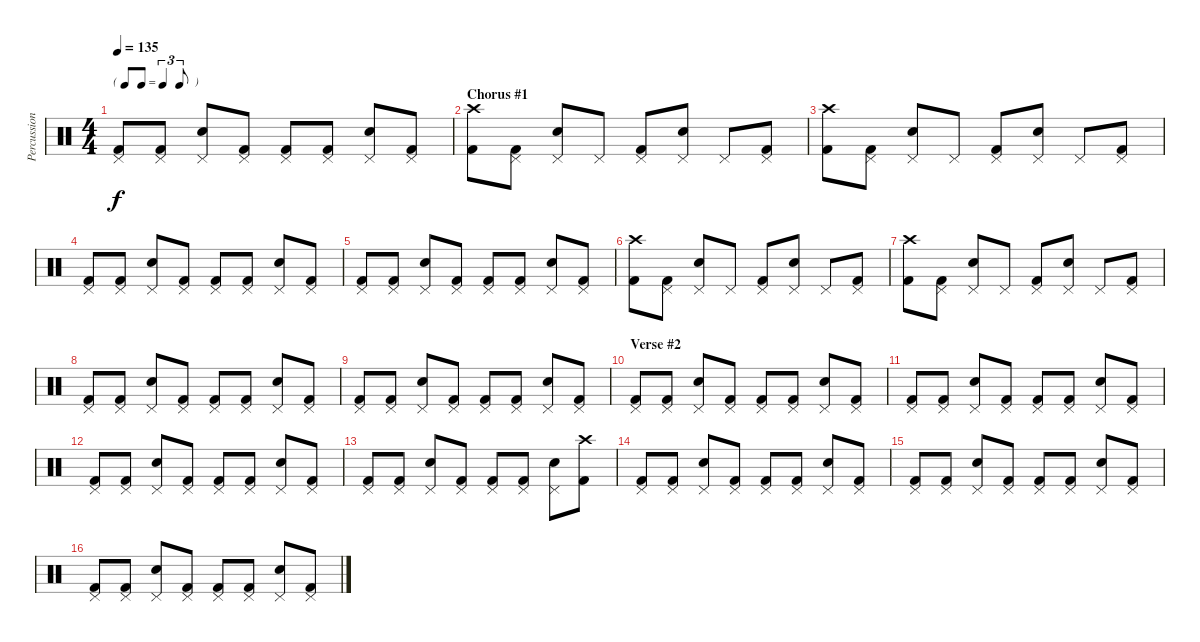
\track ("Percussion" "Percussion") {instrument percussion}
\staff {score}
\articulation defaults
\ts (4 4)
\tf triplet8th
\tempo 135
\clef neutral
\ks c
("Pedal Hi-Hat (hit)" "Kick (hit) 2").8{dy f} ("Pedal Hi-Hat (hit)" "Kick (hit) 2").8 ("Pedal Hi-Hat (hit)" "Electric Snare (hit)").8 ("Pedal Hi-Hat (hit)" "Kick (hit) 2").8 ("Pedal Hi-Hat (hit)" "Kick (hit) 2").8 ("Pedal Hi-Hat (hit)" "Kick (hit) 2").8 ("Pedal Hi-Hat (hit)" "Electric Snare (hit)").8 ("Pedal Hi-Hat (hit)" "Kick (hit) 2").8 |
\section ("" "Chorus #1")
("Crash high (hit)" "Kick (hit) 2").8 ("Pedal Hi-Hat (hit)" "Kick (hit) 2").8 ("Pedal Hi-Hat (hit)" "Electric Snare (hit)").8 "Pedal Hi-Hat (hit)".8 ("Pedal Hi-Hat (hit)" "Kick (hit) 2").8 ("Pedal Hi-Hat (hit)" "Electric Snare (hit)").8 "Pedal Hi-Hat (hit)".8 ("Pedal Hi-Hat (hit)" "Kick (hit) 2").8 |
("Crash high (hit)" "Kick (hit) 2").8 ("Pedal Hi-Hat (hit)" "Kick (hit) 2").8 ("Pedal Hi-Hat (hit)" "Electric Snare (hit)").8 "Pedal Hi-Hat (hit)".8 ("Pedal Hi-Hat (hit)" "Kick (hit) 2").8 ("Pedal Hi-Hat (hit)" "Electric Snare (hit)").8 "Pedal Hi-Hat (hit)".8 ("Pedal Hi-Hat (hit)" "Kick (hit) 2").8 |
("Pedal Hi-Hat (hit)" "Kick (hit) 2").8 ("Pedal Hi-Hat (hit)" "Kick (hit) 2").8 ("Pedal Hi-Hat (hit)" "Electric Snare (hit)").8 ("Pedal Hi-Hat (hit)" "Kick (hit) 2").8 ("Pedal Hi-Hat (hit)" "Kick (hit) 2").8 ("Pedal Hi-Hat (hit)" "Kick (hit) 2").8 ("Pedal Hi-Hat (hit)" "Electric Snare (hit)").8 ("Pedal Hi-Hat (hit)" "Kick (hit) 2").8 |
("Pedal Hi-Hat (hit)" "Kick (hit) 2").8 ("Pedal Hi-Hat (hit)" "Kick (hit) 2").8 ("Pedal Hi-Hat (hit)" "Electric Snare (hit)").8 ("Pedal Hi-Hat (hit)" "Kick (hit) 2").8 ("Pedal Hi-Hat (hit)" "Kick (hit) 2").8 ("Pedal Hi-Hat (hit)" "Kick (hit) 2").8 ("Pedal Hi-Hat (hit)" "Electric Snare (hit)").8 ("Pedal Hi-Hat (hit)" "Kick (hit) 2").8 |
("Crash high (hit)" "Kick (hit) 2").8 ("Pedal Hi-Hat (hit)" "Kick (hit) 2").8 ("Pedal Hi-Hat (hit)" "Electric Snare (hit)").8 "Pedal Hi-Hat (hit)".8 ("Pedal Hi-Hat (hit)" "Kick (hit) 2").8 ("Pedal Hi-Hat (hit)" "Electric Snare (hit)").8 "Pedal Hi-Hat (hit)".8 ("Pedal Hi-Hat (hit)" "Kick (hit) 2").8 |
("Crash high (hit)" "Kick (hit) 2").8 ("Pedal Hi-Hat (hit)" "Kick (hit) 2").8 ("Pedal Hi-Hat (hit)" "Electric Snare (hit)").8 "Pedal Hi-Hat (hit)".8 ("Pedal Hi-Hat (hit)" "Kick (hit) 2").8 ("Pedal Hi-Hat (hit)" "Electric Snare (hit)").8 "Pedal Hi-Hat (hit)".8 ("Pedal Hi-Hat (hit)" "Kick (hit) 2").8 |
("Pedal Hi-Hat (hit)" "Kick (hit) 2").8 ("Pedal Hi-Hat (hit)" "Kick (hit) 2").8 ("Pedal Hi-Hat (hit)" "Electric Snare (hit)").8 ("Pedal Hi-Hat (hit)" "Kick (hit) 2").8 ("Pedal Hi-Hat (hit)" "Kick (hit) 2").8 ("Pedal Hi-Hat (hit)" "Kick (hit) 2").8 ("Pedal Hi-Hat (hit)" "Electric Snare (hit)").8 ("Pedal Hi-Hat (hit)" "Kick (hit) 2").8 |
("Pedal Hi-Hat (hit)" "Kick (hit) 2").8 ("Pedal Hi-Hat (hit)" "Kick (hit) 2").8 ("Pedal Hi-Hat (hit)" "Electric Snare (hit)").8 ("Pedal Hi-Hat (hit)" "Kick (hit) 2").8 ("Pedal Hi-Hat (hit)" "Kick (hit) 2").8 ("Pedal Hi-Hat (hit)" "Kick (hit) 2").8 ("Pedal Hi-Hat (hit)" "Electric Snare (hit)").8 ("Pedal Hi-Hat (hit)" "Kick (hit) 2").8 |
\section ("" "Verse #2")
("Pedal Hi-Hat (hit)" "Kick (hit) 2").8 ("Pedal Hi-Hat (hit)" "Kick (hit) 2").8 ("Pedal Hi-Hat (hit)" "Electric Snare (hit)").8 ("Pedal Hi-Hat (hit)" "Kick (hit) 2").8 ("Pedal Hi-Hat (hit)" "Kick (hit) 2").8 ("Pedal Hi-Hat (hit)" "Kick (hit) 2").8 ("Pedal Hi-Hat (hit)" "Electric Snare (hit)").8 ("Pedal Hi-Hat (hit)" "Kick (hit) 2").8 |
("Pedal Hi-Hat (hit)" "Kick (hit) 2").8 ("Pedal Hi-Hat (hit)" "Kick (hit) 2").8 ("Pedal Hi-Hat (hit)" "Electric Snare (hit)").8 ("Pedal Hi-Hat (hit)" "Kick (hit) 2").8 ("Pedal Hi-Hat (hit)" "Kick (hit) 2").8 ("Pedal Hi-Hat (hit)" "Kick (hit) 2").8 ("Pedal Hi-Hat (hit)" "Electric Snare (hit)").8 ("Pedal Hi-Hat (hit)" "Kick (hit) 2").8 |
("Pedal Hi-Hat (hit)" "Kick (hit) 2").8 ("Pedal Hi-Hat (hit)" "Kick (hit) 2").8 ("Pedal Hi-Hat (hit)" "Electric Snare (hit)").8 ("Pedal Hi-Hat (hit)" "Kick (hit) 2").8 ("Pedal Hi-Hat (hit)" "Kick (hit) 2").8 ("Pedal Hi-Hat (hit)" "Kick (hit) 2").8 ("Pedal Hi-Hat (hit)" "Electric Snare (hit)").8 ("Pedal Hi-Hat (hit)" "Kick (hit) 2").8 |
("Pedal Hi-Hat (hit)" "Kick (hit) 2").8 ("Pedal Hi-Hat (hit)" "Kick (hit) 2").8 ("Pedal Hi-Hat (hit)" "Electric Snare (hit)").8 ("Pedal Hi-Hat (hit)" "Kick (hit) 2").8 ("Pedal Hi-Hat (hit)" "Kick (hit) 2").8 ("Pedal Hi-Hat (hit)" "Kick (hit) 2").8 ("Pedal Hi-Hat (hit)" "Electric Snare (hit)").8 ("Crash high (hit)" "Kick (hit) 2").8 |
("Pedal Hi-Hat (hit)" "Kick (hit) 2").8 ("Pedal Hi-Hat (hit)" "Kick (hit) 2").8 ("Pedal Hi-Hat (hit)" "Electric Snare (hit)").8 ("Pedal Hi-Hat (hit)" "Kick (hit) 2").8 ("Pedal Hi-Hat (hit)" "Kick (hit) 2").8 ("Pedal Hi-Hat (hit)" "Kick (hit) 2").8 ("Pedal Hi-Hat (hit)" "Electric Snare (hit)").8 ("Pedal Hi-Hat (hit)" "Kick (hit) 2").8 |
("Pedal Hi-Hat (hit)" "Kick (hit) 2").8 ("Pedal Hi-Hat (hit)" "Kick (hit) 2").8 ("Pedal Hi-Hat (hit)" "Electric Snare (hit)").8 ("Pedal Hi-Hat (hit)" "Kick (hit) 2").8 ("Pedal Hi-Hat (hit)" "Kick (hit) 2").8 ("Pedal Hi-Hat (hit)" "Kick (hit) 2").8 ("Pedal Hi-Hat (hit)" "Electric Snare (hit)").8 ("Pedal Hi-Hat (hit)" "Kick (hit) 2").8 |
("Pedal Hi-Hat (hit)" "Kick (hit) 2").8 ("Pedal Hi-Hat (hit)" "Kick (hit) 2").8 ("Pedal Hi-Hat (hit)" "Electric Snare (hit)").8 ("Pedal Hi-Hat (hit)" "Kick (hit) 2").8 ("Pedal Hi-Hat (hit)" "Kick (hit) 2").8 ("Pedal Hi-Hat (hit)" "Kick (hit) 2").8 ("Pedal Hi-Hat (hit)" "Electric Snare (hit)").8 ("Pedal Hi-Hat (hit)" "Kick (hit) 2").8
